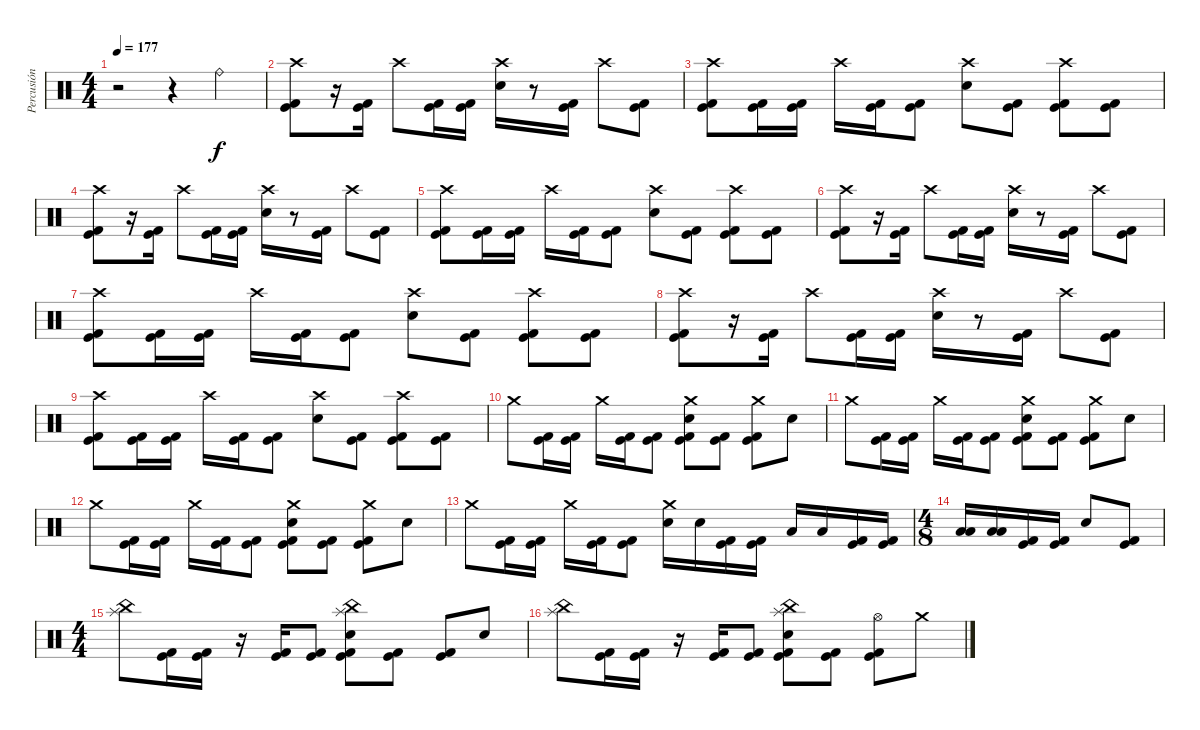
\track ("Percusión" "Percusión") {instrument percussion}
\staff {score}
\articulation defaults
\ts (4 4)
\tempo 177
\clef neutral
\ks c
r.2{dy f} r.4 "Ride (bell)".4 |
("Crash high (hit)" "Kick (hit)" "Kick (hit) 2").8 r.16 ("Kick (hit)" "Kick (hit) 2").16 "Crash high (hit)".8 ("Kick (hit)" "Kick (hit) 2").16 ("Kick (hit)" "Kick (hit) 2").16 ("Crash high (hit)" "Electric Snare (hit)").16 r.8 ("Kick (hit)" "Kick (hit) 2").16 "Crash high (hit)".8 ("Kick (hit)" "Kick (hit) 2").8 |
("Crash high (hit)" "Kick (hit)" "Kick (hit) 2").8 ("Kick (hit)" "Kick (hit) 2").16 ("Kick (hit)" "Kick (hit) 2").16 "Crash high (hit)".16 ("Kick (hit)" "Kick (hit) 2").16 ("Kick (hit)" "Kick (hit) 2").8 ("Crash high (hit)" "Electric Snare (hit)").8 ("Kick (hit)" "Kick (hit) 2").8 ("Crash high (hit)" "Kick (hit)" "Kick (hit) 2").8 ("Kick (hit)" "Kick (hit) 2").8 |
("Crash high (hit)" "Kick (hit)" "Kick (hit) 2").8 r.16 ("Kick (hit)" "Kick (hit) 2").16 "Crash high (hit)".8 ("Kick (hit)" "Kick (hit) 2").16 ("Kick (hit)" "Kick (hit) 2").16 ("Crash high (hit)" "Electric Snare (hit)").16 r.8 ("Kick (hit)" "Kick (hit) 2").16 "Crash high (hit)".8 ("Kick (hit)" "Kick (hit) 2").8 |
("Crash high (hit)" "Kick (hit)" "Kick (hit) 2").8 ("Kick (hit)" "Kick (hit) 2").16 ("Kick (hit)" "Kick (hit) 2").16 "Crash high (hit)".16 ("Kick (hit)" "Kick (hit) 2").16 ("Kick (hit)" "Kick (hit) 2").8 ("Crash high (hit)" "Electric Snare (hit)").8 ("Kick (hit)" "Kick (hit) 2").8 ("Crash high (hit)" "Kick (hit)" "Kick (hit) 2").8 ("Kick (hit)" "Kick (hit) 2").8 |
("Crash high (hit)" "Kick (hit)" "Kick (hit) 2").8 r.16 ("Kick (hit)" "Kick (hit) 2").16 "Crash high (hit)".8 ("Kick (hit)" "Kick (hit) 2").16 ("Kick (hit)" "Kick (hit) 2").16 ("Crash high (hit)" "Electric Snare (hit)").16 r.8 ("Kick (hit)" "Kick (hit) 2").16 "Crash high (hit)".8 ("Kick (hit)" "Kick (hit) 2").8 |
("Crash high (hit)" "Kick (hit)" "Kick (hit) 2").8 ("Kick (hit)" "Kick (hit) 2").16 ("Kick (hit)" "Kick (hit) 2").16 "Crash high (hit)".16 ("Kick (hit)" "Kick (hit) 2").16 ("Kick (hit)" "Kick (hit) 2").8 ("Crash high (hit)" "Electric Snare (hit)").8 ("Kick (hit)" "Kick (hit) 2").8 ("Crash high (hit)" "Kick (hit)" "Kick (hit) 2").8 ("Kick (hit)" "Kick (hit) 2").8 |
("Crash high (hit)" "Kick (hit)" "Kick (hit) 2").8 r.16 ("Kick (hit)" "Kick (hit) 2").16 "Crash high (hit)".8 ("Kick (hit)" "Kick (hit) 2").16 ("Kick (hit)" "Kick (hit) 2").16 ("Crash high (hit)" "Electric Snare (hit)").16 r.8 ("Kick (hit)" "Kick (hit) 2").16 "Crash high (hit)".8 ("Kick (hit)" "Kick (hit) 2").8 |
("Crash high (hit)" "Kick (hit)" "Kick (hit) 2").8 ("Kick (hit)" "Kick (hit) 2").16 ("Kick (hit)" "Kick (hit) 2").16 "Crash high (hit)".16 ("Kick (hit)" "Kick (hit) 2").16 ("Kick (hit)" "Kick (hit) 2").8 ("Crash high (hit)" "Electric Snare (hit)").8 ("Kick (hit)" "Kick (hit) 2").8 ("Crash high (hit)" "Kick (hit)" "Kick (hit) 2").8 ("Kick (hit)" "Kick (hit) 2").8 |
"Crash medium (hit)".8 ("Kick (hit)" "Kick (hit) 2").16 ("Kick (hit)" "Kick (hit) 2").16 "Crash medium (hit)".16 ("Kick (hit)" "Kick (hit) 2").16 ("Kick (hit)" "Kick (hit) 2").8 ("Crash medium (hit)" "Electric Snare (hit)" "Kick (hit)" "Kick (hit) 2").8 ("Kick (hit)" "Kick (hit) 2").8 ("Crash medium (hit)" "Kick (hit)" "Kick (hit) 2").8 "Electric Snare (hit)".8 |
"Crash medium (hit)".8 ("Kick (hit)" "Kick (hit) 2").16 ("Kick (hit)" "Kick (hit) 2").16 "Crash medium (hit)".16 ("Kick (hit)" "Kick (hit) 2").16 ("Kick (hit)" "Kick (hit) 2").8 ("Crash medium (hit)" "Electric Snare (hit)" "Kick (hit)" "Kick (hit) 2").8 ("Kick (hit)" "Kick (hit) 2").8 ("Crash medium (hit)" "Kick (hit)" "Kick (hit) 2").8 "Electric Snare (hit)".8 |
"Crash medium (hit)".8 ("Kick (hit)" "Kick (hit) 2").16 ("Kick (hit)" "Kick (hit) 2").16 "Crash medium (hit)".16 ("Kick (hit)" "Kick (hit) 2").16 ("Kick (hit)" "Kick (hit) 2").8 ("Crash medium (hit)" "Electric Snare (hit)" "Kick (hit)" "Kick (hit) 2").8 ("Kick (hit)" "Kick (hit) 2").8 ("Crash medium (hit)" "Kick (hit)" "Kick (hit) 2").8 "Electric Snare (hit)".8 |
"Crash medium (hit)".8 ("Kick (hit)" "Kick (hit) 2").16 ("Kick (hit)" "Kick (hit) 2").16 "Crash medium (hit)".16 ("Kick (hit)" "Kick (hit) 2").16 ("Kick (hit)" "Kick (hit) 2").8 ("Crash medium (hit)" "Electric Snare (hit)").16 "Electric Snare (hit)".16 ("Kick (hit)" "Kick (hit) 2").16 ("Kick (hit)" "Kick (hit) 2").16 "Low Tom (hit)".16 "Low Tom (hit)".16 ("Kick (hit)" "Kick (hit) 2").16 ("Kick (hit)" "Kick (hit) 2").16 |
\ts (4 8)
("Low Floor Tom (hit)" "Low Floor Tom (hit)").16 ("Low Floor Tom (hit)" "Low Floor Tom (hit)").16 ("Kick (hit)" "Kick (hit) 2").16 ("Kick (hit)" "Kick (hit) 2").16 "Electric Snare (hit)".8 ("Kick (hit)" "Kick (hit) 2").8 |
\ts (4 4)
("Splash (hit)" "China (hit)").8 ("Kick (hit)" "Kick (hit) 2").16 ("Kick (hit)" "Kick (hit) 2").16 r.16 ("Kick (hit)" "Kick (hit) 2").16 ("Kick (hit)" "Kick (hit) 2").8 ("Splash (hit)" "China (hit)" "Electric Snare (hit)" "Kick (hit)" "Kick (hit) 2").8 ("Kick (hit)" "Kick (hit) 2").8 ("Kick (hit)" "Kick (hit) 2").8 "Electric Snare (hit)".8 |
("Splash (hit)" "China (hit)").8 ("Kick (hit)" "Kick (hit) 2").16 ("Kick (hit)" "Kick (hit) 2").16 r.16 ("Kick (hit)" "Kick (hit) 2").16 ("Kick (hit)" "Kick (hit) 2").8 ("Splash (hit)" "China (hit)" "Electric Snare (hit)" "Kick (hit)" "Kick (hit) 2").8 ("Kick (hit)" "Kick (hit) 2").8 ("Hi-Hat (open)" "Kick (hit)" "Kick (hit) 2").8 "Crash medium (hit)".8
